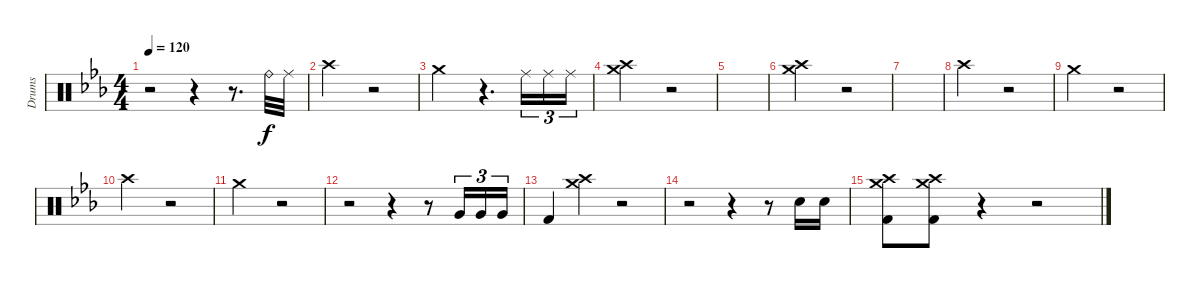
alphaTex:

\track ("Drums" "Drums") {instrument percussion}
\staff {score}
\articulation defaults
\ts (4 4)
\tempo 120
\clef neutral
\ks eb
r.2{dy f} r.4 r.8{d} "Ride (bell)".32 "Ride (middle)".32 |
"Crash high (hit)".2 r.2 |
"Crash medium (hit)".2 r.4{d} "Ride (middle)".16{tu (3 2)} "Ride (middle)".16{tu (3 2)} "Ride (middle)".16{tu (3 2)} |
("Crash high (hit)" "Crash medium (hit)").2 r.2 |
|
("Crash high (hit)" "Crash medium (hit)").2 r.2 |
|
"Crash high (hit)".2 r.2 |
"Crash medium (hit)".2 r.2 |
"Crash high (hit)".2 r.2 |
"Crash medium (hit)".2 r.2 |
r.2 r.4 r.8 "Very Low Tom (hit)".16{tu (3 2)} "Very Low Tom (hit)".16{tu (3 2)} "Very Low Tom (hit)".16{tu (3 2)} |
"Kick (hit) 2".4 ("Crash high (hit)" "Crash medium (hit)").4 r.2 |
r.2 r.4 r.8 "Electric Snare (hit)".16 "Electric Snare (hit)".16 |
("Crash high (hit)" "Crash medium (hit)" "Kick (hit) 2").8 ("Crash high (hit)" "Crash medium (hit)" "Kick (hit) 2").8 r.4 r.2
